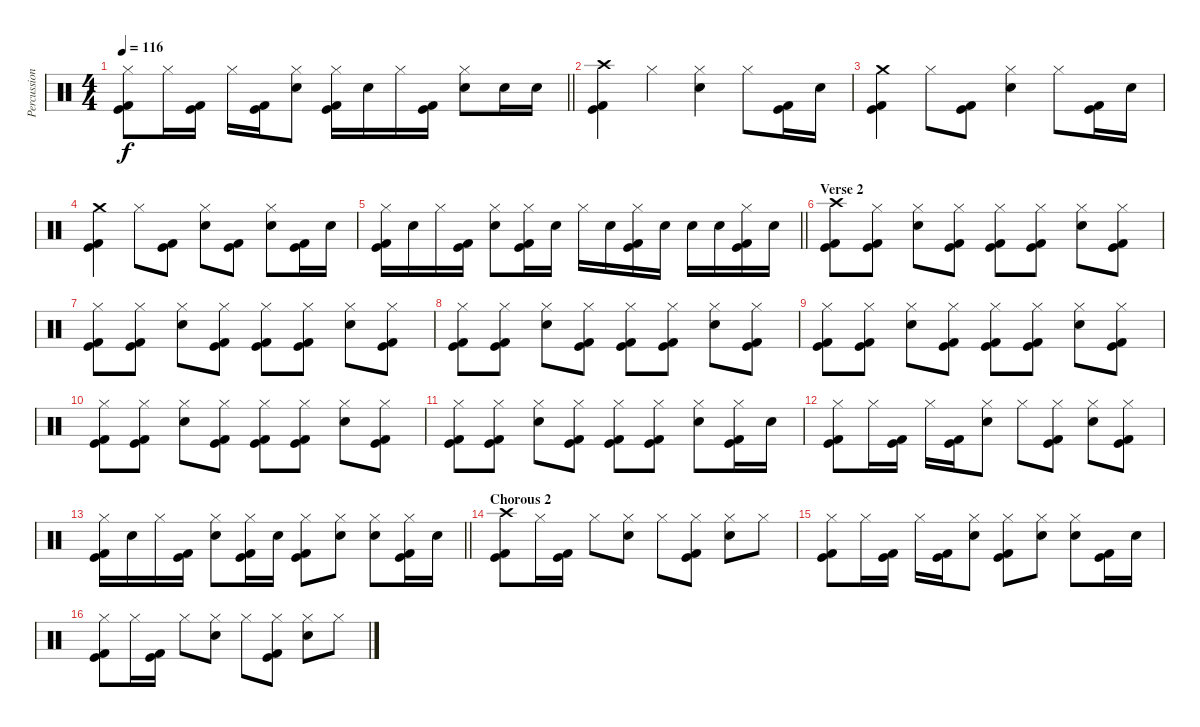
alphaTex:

\track ("Percussion" "Percussion") {instrument percussion}
\staff {score}
\articulation defaults
\ts (4 4)
\tempo 116
\clef neutral
\barLineRight lightlight
\ks c
("Hi-Hat (closed)" "Kick (hit)" "Kick (hit) 2").8{dy f} "Hi-Hat (closed)".16 ("Kick (hit)" "Kick (hit) 2").16 "Hi-Hat (closed)".16 ("Kick (hit)" "Kick (hit) 2").16 ("Hi-Hat (closed)" "Electric Snare (hit)").8 ("Hi-Hat (closed)" "Kick (hit)" "Kick (hit) 2").16 "Electric Snare (hit)".16 "Hi-Hat (closed)".16 ("Kick (hit)" "Kick (hit) 2").16 ("Hi-Hat (closed)" "Electric Snare (hit)").8 "Electric Snare (hit)".16 "Electric Snare (hit)".16 |
\section ("" "")
("Crash high (hit)" "Kick (hit)" "Kick (hit) 2").4 "Hi-Hat (closed)".4 ("Hi-Hat (closed)" "Electric Snare (hit)").4 "Hi-Hat (closed)".8 ("Kick (hit)" "Kick (hit) 2").16 "Electric Snare (hit)".16 |
("Crash medium (hit)" "Kick (hit)" "Kick (hit) 2").4 "Hi-Hat (closed)".8 ("Kick (hit)" "Kick (hit) 2").8 ("Hi-Hat (closed)" "Electric Snare (hit)").4 "Hi-Hat (closed)".8 ("Kick (hit)" "Kick (hit) 2").16 "Electric Snare (hit)".16 |
("Crash medium (hit)" "Kick (hit)" "Kick (hit) 2").4 "Hi-Hat (closed)".8 ("Kick (hit)" "Kick (hit) 2").8 ("Hi-Hat (closed)" "Electric Snare (hit)").8 ("Kick (hit)" "Kick (hit) 2").8 ("Hi-Hat (closed)" "Electric Snare (hit)").8 ("Kick (hit)" "Kick (hit) 2").16 "Electric Snare (hit)".16 |
\barLineRight lightlight
("Hi-Hat (closed)" "Kick (hit)" "Kick (hit) 2").16 "Electric Snare (hit)".16 "Hi-Hat (closed)".16 ("Kick (hit)" "Kick (hit) 2").16 ("Hi-Hat (closed)" "Electric Snare (hit)").8 ("Hi-Hat (closed)" "Kick (hit)" "Kick (hit) 2").16 "Electric Snare (hit)".16 "Hi-Hat (closed)".16 "Electric Snare (hit)".16 ("Hi-Hat (closed)" "Kick (hit)" "Kick (hit) 2").16 "Electric Snare (hit)".16 "Electric Snare (hit)".16 "Electric Snare (hit)".16 ("Hi-Hat (closed)" "Kick (hit)" "Kick (hit) 2").16 "Electric Snare (hit)".16 |
\section ("" "Verse 2")
("Crash high (hit)" "Kick (hit)" "Kick (hit) 2").8 ("Hi-Hat (closed)" "Kick (hit)" "Kick (hit) 2").8 ("Hi-Hat (closed)" "Electric Snare (hit)").8 ("Hi-Hat (closed)" "Kick (hit)" "Kick (hit) 2").8 ("Hi-Hat (closed)" "Kick (hit)" "Kick (hit) 2").8 ("Hi-Hat (closed)" "Kick (hit)" "Kick (hit) 2").8 ("Hi-Hat (closed)" "Electric Snare (hit)").8 ("Hi-Hat (closed)" "Kick (hit)" "Kick (hit) 2").8 |
("Hi-Hat (closed)" "Kick (hit)" "Kick (hit) 2").8 ("Hi-Hat (closed)" "Kick (hit)" "Kick (hit) 2").8 ("Hi-Hat (closed)" "Electric Snare (hit)").8 ("Hi-Hat (closed)" "Kick (hit)" "Kick (hit) 2").8 ("Hi-Hat (closed)" "Kick (hit)" "Kick (hit) 2").8 ("Hi-Hat (closed)" "Kick (hit)" "Kick (hit) 2").8 ("Hi-Hat (closed)" "Electric Snare (hit)").8 ("Hi-Hat (closed)" "Kick (hit)" "Kick (hit) 2").8 |
("Hi-Hat (closed)" "Kick (hit)" "Kick (hit) 2").8 ("Hi-Hat (closed)" "Kick (hit)" "Kick (hit) 2").8 ("Hi-Hat (closed)" "Electric Snare (hit)").8 ("Hi-Hat (closed)" "Kick (hit)" "Kick (hit) 2").8 ("Hi-Hat (closed)" "Kick (hit)" "Kick (hit) 2").8 ("Hi-Hat (closed)" "Kick (hit)" "Kick (hit) 2").8 ("Hi-Hat (closed)" "Electric Snare (hit)").8 ("Hi-Hat (closed)" "Kick (hit)" "Kick (hit) 2").8 |
("Hi-Hat (closed)" "Kick (hit)" "Kick (hit) 2").8 ("Hi-Hat (closed)" "Kick (hit)" "Kick (hit) 2").8 ("Hi-Hat (closed)" "Electric Snare (hit)").8 ("Hi-Hat (closed)" "Kick (hit)" "Kick (hit) 2").8 ("Hi-Hat (closed)" "Kick (hit)" "Kick (hit) 2").8 ("Hi-Hat (closed)" "Kick (hit)" "Kick (hit) 2").8 ("Hi-Hat (closed)" "Electric Snare (hit)").8 ("Hi-Hat (closed)" "Kick (hit)" "Kick (hit) 2").8 |
("Hi-Hat (closed)" "Kick (hit)" "Kick (hit) 2").8 ("Hi-Hat (closed)" "Kick (hit)" "Kick (hit) 2").8 ("Hi-Hat (closed)" "Electric Snare (hit)").8 ("Hi-Hat (closed)" "Kick (hit)" "Kick (hit) 2").8 ("Hi-Hat (closed)" "Kick (hit)" "Kick (hit) 2").8 ("Hi-Hat (closed)" "Kick (hit)" "Kick (hit) 2").8 ("Hi-Hat (closed)" "Electric Snare (hit)").8 ("Hi-Hat (closed)" "Kick (hit)" "Kick (hit) 2").8 |
("Hi-Hat (closed)" "Kick (hit)" "Kick (hit) 2").8 ("Hi-Hat (closed)" "Kick (hit)" "Kick (hit) 2").8 ("Hi-Hat (closed)" "Electric Snare (hit)").8 ("Hi-Hat (closed)" "Kick (hit)" "Kick (hit) 2").8 ("Hi-Hat (closed)" "Kick (hit)" "Kick (hit) 2").8 ("Hi-Hat (closed)" "Kick (hit)" "Kick (hit) 2").8 ("Hi-Hat (closed)" "Electric Snare (hit)").8 ("Hi-Hat (closed)" "Kick (hit)" "Kick (hit) 2").16 "Electric Snare (hit)".16 |
("Hi-Hat (closed)" "Kick (hit)" "Kick (hit) 2").8 "Hi-Hat (closed)".16 ("Kick (hit)" "Kick (hit) 2").16 "Hi-Hat (closed)".16 ("Kick (hit)" "Kick (hit) 2").16 ("Hi-Hat (closed)" "Electric Snare (hit)").8 "Hi-Hat (closed)".8 ("Hi-Hat (closed)" "Kick (hit)" "Kick (hit) 2").8 ("Hi-Hat (closed)" "Electric Snare (hit)").8 ("Hi-Hat (closed)" "Kick (hit)" "Kick (hit) 2").8 |
\barLineRight lightlight
("Hi-Hat (closed)" "Kick (hit)" "Kick (hit) 2").16 "Electric Snare (hit)".16 "Hi-Hat (closed)".16 ("Kick (hit)" "Kick (hit) 2").16 ("Hi-Hat (closed)" "Electric Snare (hit)").8 ("Hi-Hat (closed)" "Kick (hit)" "Kick (hit) 2").16 "Electric Snare (hit)".16 ("Hi-Hat (closed)" "Kick (hit)" "Kick (hit) 2").8 ("Hi-Hat (closed)" "Electric Snare (hit)").8 ("Hi-Hat (closed)" "Electric Snare (hit)").8 ("Hi-Hat (closed)" "Kick (hit)" "Kick (hit) 2").16 "Electric Snare (hit)".16 |
\section ("" "Chorous 2")
("Crash high (hit)" "Kick (hit)" "Kick (hit) 2").8 "Hi-Hat (closed)".16 ("Kick (hit)" "Kick (hit) 2").16 "Hi-Hat (closed)".8 ("Hi-Hat (closed)" "Electric Snare (hit)").8 "Hi-Hat (closed)".8 ("Hi-Hat (closed)" "Kick (hit)" "Kick (hit) 2").8 ("Hi-Hat (closed)" "Electric Snare (hit)").8 "Hi-Hat (closed)".8 |
("Hi-Hat (closed)" "Kick (hit)" "Kick (hit) 2").8 "Hi-Hat (closed)".16 ("Kick (hit)" "Kick (hit) 2").16 "Hi-Hat (closed)".16 ("Kick (hit)" "Kick (hit) 2").16 ("Hi-Hat (closed)" "Electric Snare (hit)").8 ("Hi-Hat (closed)" "Kick (hit)" "Kick (hit) 2").8 ("Hi-Hat (closed)" "Electric Snare (hit)").8 ("Hi-Hat (closed)" "Electric Snare (hit)").8 ("Kick (hit)" "Kick (hit) 2").16 "Electric Snare (hit)".16 |
("Hi-Hat (closed)" "Kick (hit)" "Kick (hit) 2").8 "Hi-Hat (closed)".16 ("Kick (hit)" "Kick (hit) 2").16 "Hi-Hat (closed)".8 ("Hi-Hat (closed)" "Electric Snare (hit)").8 "Hi-Hat (closed)".8 ("Hi-Hat (closed)" "Kick (hit)" "Kick (hit) 2").8 ("Hi-Hat (closed)" "Electric Snare (hit)").8 "Hi-Hat (closed)".8
